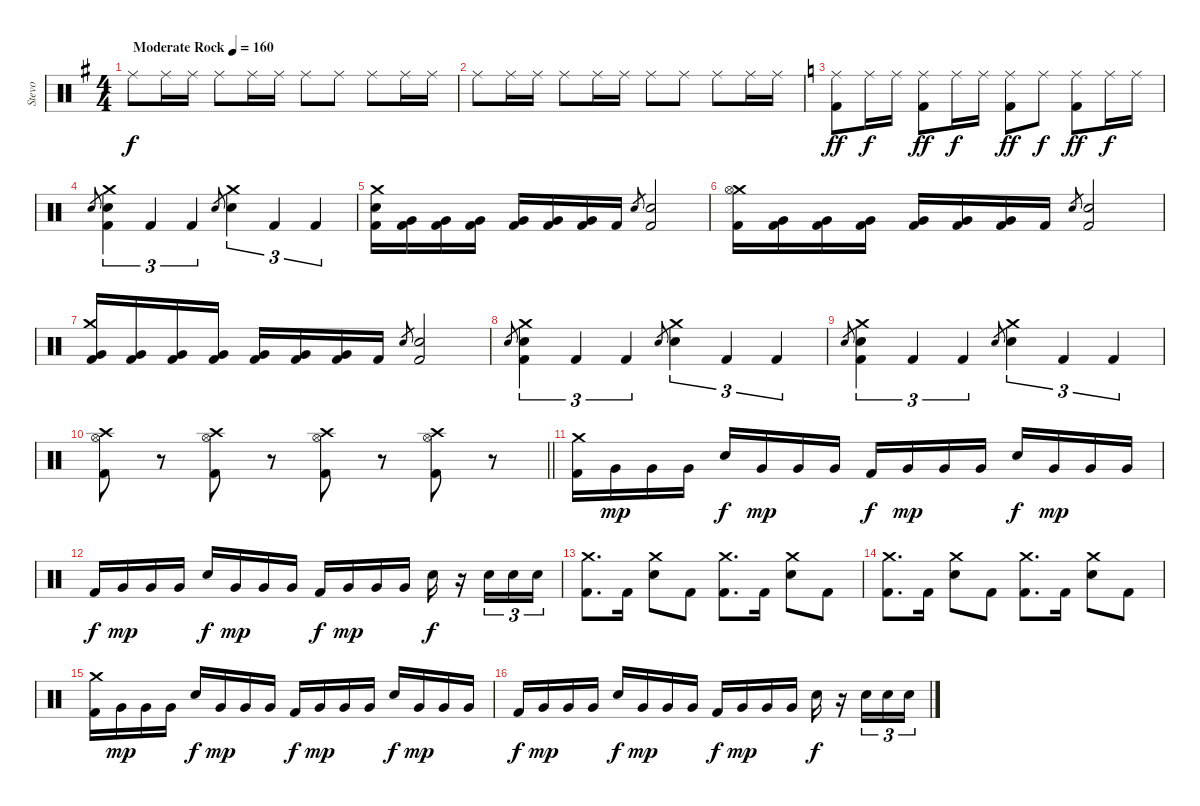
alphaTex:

\track ("Stevo" "Stevo") {instrument percussion}
\staff {score}
\articulation defaults
\ts (4 4)
\tempo (160 "Moderate Rock")
\clef neutral
\ks g "Ride (middle)".8{dy f} "Ride (middle)".16 "Ride (middle)".16 "Ride (middle)".8 "Ride (middle)".16 "Ride (middle)".16 "Ride (middle)".8 "Ride (middle)".8 "Ride (middle)".8 "Ride (middle)".16 "Ride (middle)".16
|
"Ride (middle)".8 "Ride (middle)".16 "Ride (middle)".16 "Ride (middle)".8 "Ride (middle)".16 "Ride (middle)".16 "Ride (middle)".8 "Ride (middle)".8 "Ride (middle)".8 "Ride (middle)".16 "Ride (middle)".16 |
\ks c
("Ride (middle)" "Kick (hit) 2").8{dy ff} "Ride (middle)".16{dy f} "Ride (middle)".16 ("Ride (middle)" "Kick (hit) 2").8{dy ff} "Ride (middle)".16{dy f} "Ride (middle)".16 ("Ride (middle)" "Kick (hit) 2").8{dy ff} "Ride (middle)".8{dy f} ("Ride (middle)" "Kick (hit) 2").8{dy ff} "Ride (middle)".16{dy f} "Ride (middle)".16 |
"Electric Snare (hit)".8{gr} ("Crash medium (hit)" "Electric Snare (hit)" "Kick (hit) 2").4{tu (3 2)} "Kick (hit) 2".4{tu (3 2)} "Kick (hit) 2".4{tu (3 2)} "Electric Snare (hit)".8{gr} ("Crash medium (hit)" "Electric Snare (hit)").4{tu (3 2)} "Kick (hit) 2".4{tu (3 2)} "Kick (hit) 2".4{tu (3 2)} |
("Crash medium (hit)" "Electric Snare (hit)" "Kick (hit) 2").16 ("Very Low Tom (hit)" "Kick (hit) 2").16 ("Very Low Tom (hit)" "Kick (hit) 2").16 ("Very Low Tom (hit)" "Kick (hit) 2").16 ("Very Low Tom (hit)" "Kick (hit) 2").16 ("Very Low Tom (hit)" "Kick (hit) 2").16 ("Very Low Tom (hit)" "Kick (hit) 2").16 "Kick (hit) 2".16 "Electric Snare (hit)".8{gr} ("Electric Snare (hit)" "Kick (hit) 2").2 |
("Crash medium (hit)" "Hi-Hat (open)" "Kick (hit) 2").16 ("Very Low Tom (hit)" "Kick (hit) 2").16 ("Very Low Tom (hit)" "Kick (hit) 2").16 ("Very Low Tom (hit)" "Kick (hit) 2").16 ("Very Low Tom (hit)" "Kick (hit) 2").16 ("Very Low Tom (hit)" "Kick (hit) 2").16 ("Very Low Tom (hit)" "Kick (hit) 2").16 "Kick (hit) 2".16 "Electric Snare (hit)".8{gr} ("Electric Snare (hit)" "Kick (hit) 2").2 |
("Crash medium (hit)" "Very Low Tom (hit)" "Kick (hit) 2").16 ("Very Low Tom (hit)" "Kick (hit) 2").16 ("Very Low Tom (hit)" "Kick (hit) 2").16 ("Very Low Tom (hit)" "Kick (hit) 2").16 ("Very Low Tom (hit)" "Kick (hit) 2").16 ("Very Low Tom (hit)" "Kick (hit) 2").16 ("Very Low Tom (hit)" "Kick (hit) 2").16 "Kick (hit) 2".16 "Electric Snare (hit)".8{gr} ("Electric Snare (hit)" "Kick (hit) 2").2 |
"Electric Snare (hit)".8{gr} ("Crash medium (hit)" "Electric Snare (hit)" "Kick (hit) 2").4{tu (3 2)} "Kick (hit) 2".4{tu (3 2)} "Kick (hit) 2".4{tu (3 2)} "Electric Snare (hit)".8{gr} ("Crash medium (hit)" "Electric Snare (hit)").4{tu (3 2)} "Kick (hit) 2".4{tu (3 2)} "Kick (hit) 2".4{tu (3 2)} |
"Electric Snare (hit)".8{gr} ("Crash medium (hit)" "Electric Snare (hit)" "Kick (hit) 2").4{tu (3 2)} "Kick (hit) 2".4{tu (3 2)} "Kick (hit) 2".4{tu (3 2)} "Electric Snare (hit)".8{gr} ("Crash medium (hit)" "Electric Snare (hit)").4{tu (3 2)} "Kick (hit) 2".4{tu (3 2)} "Kick (hit) 2".4{tu (3 2)} |
\barLineRight lightlight
("Crash high (hit)" "Hi-Hat (open)" "Kick (hit) 2").8 r.8 ("Crash high (hit)" "Hi-Hat (open)" "Kick (hit) 2").8 r.8 ("Crash high (hit)" "Hi-Hat (open)" "Kick (hit) 2").8 r.8 ("Crash high (hit)" "Hi-Hat (open)" "Kick (hit) 2").8 r.8 |
("Crash medium (hit)" "Kick (hit) 2").16 "Very Low Tom (hit)".16{dy mp} "Very Low Tom (hit)".16 "Very Low Tom (hit)".16 "Electric Snare (hit)".16{dy f} "Very Low Tom (hit)".16{dy mp} "Very Low Tom (hit)".16 "Very Low Tom (hit)".16 "Kick (hit) 2".16{dy f} "Very Low Tom (hit)".16{dy mp} "Very Low Tom (hit)".16 "Very Low Tom (hit)".16 "Electric Snare (hit)".16{dy f} "Very Low Tom (hit)".16{dy mp} "Very Low Tom (hit)".16 "Very Low Tom (hit)".16 |
"Kick (hit) 2".16{dy f} "Very Low Tom (hit)".16{dy mp} "Very Low Tom (hit)".16 "Very Low Tom (hit)".16 "Electric Snare (hit)".16{dy f} "Very Low Tom (hit)".16{dy mp} "Very Low Tom (hit)".16 "Very Low Tom (hit)".16 "Kick (hit) 2".16{dy f} "Very Low Tom (hit)".16{dy mp} "Very Low Tom (hit)".16 "Very Low Tom (hit)".16 "Electric Snare (hit)".16{dy f} r.16 "Electric Snare (hit)".16{tu (3 2)} "Electric Snare (hit)".16{tu (3 2)} "Electric Snare (hit)".16{tu (3 2)} |
("Crash medium (hit)" "Kick (hit) 2").8{d} "Kick (hit) 2".16 ("Crash medium (hit)" "Electric Snare (hit)").8 "Kick (hit) 2".8 ("Crash medium (hit)" "Kick (hit) 2").8{d} "Kick (hit) 2".16 ("Crash medium (hit)" "Electric Snare (hit)").8 "Kick (hit) 2".8 |
("Crash medium (hit)" "Kick (hit) 2").8{d} "Kick (hit) 2".16 ("Crash medium (hit)" "Electric Snare (hit)").8 "Kick (hit) 2".8 ("Crash medium (hit)" "Kick (hit) 2").8{d} "Kick (hit) 2".16 ("Crash medium (hit)" "Electric Snare (hit)").8 "Kick (hit) 2".8 |
("Crash medium (hit)" "Kick (hit) 2").16 "Very Low Tom (hit)".16{dy mp} "Very Low Tom (hit)".16 "Very Low Tom (hit)".16 "Electric Snare (hit)".16{dy f} "Very Low Tom (hit)".16{dy mp} "Very Low Tom (hit)".16 "Very Low Tom (hit)".16 "Kick (hit) 2".16{dy f} "Very Low Tom (hit)".16{dy mp} "Very Low Tom (hit)".16 "Very Low Tom (hit)".16 "Electric Snare (hit)".16{dy f} "Very Low Tom (hit)".16{dy mp} "Very Low Tom (hit)".16 "Very Low Tom (hit)".16 |
"Kick (hit) 2".16{dy f} "Very Low Tom (hit)".16{dy mp} "Very Low Tom (hit)".16 "Very Low Tom (hit)".16 "Electric Snare (hit)".16{dy f} "Very Low Tom (hit)".16{dy mp} "Very Low Tom (hit)".16 "Very Low Tom (hit)".16 "Kick (hit) 2".16{dy f} "Very Low Tom (hit)".16{dy mp} "Very Low Tom (hit)".16 "Very Low Tom (hit)".16 "Electric Snare (hit)".16{dy f} r.16 "Electric Snare (hit)".16{tu (3 2)} "Electric Snare (hit)".16{tu (3 2)} "Electric Snare (hit)".16{tu (3 2)}
